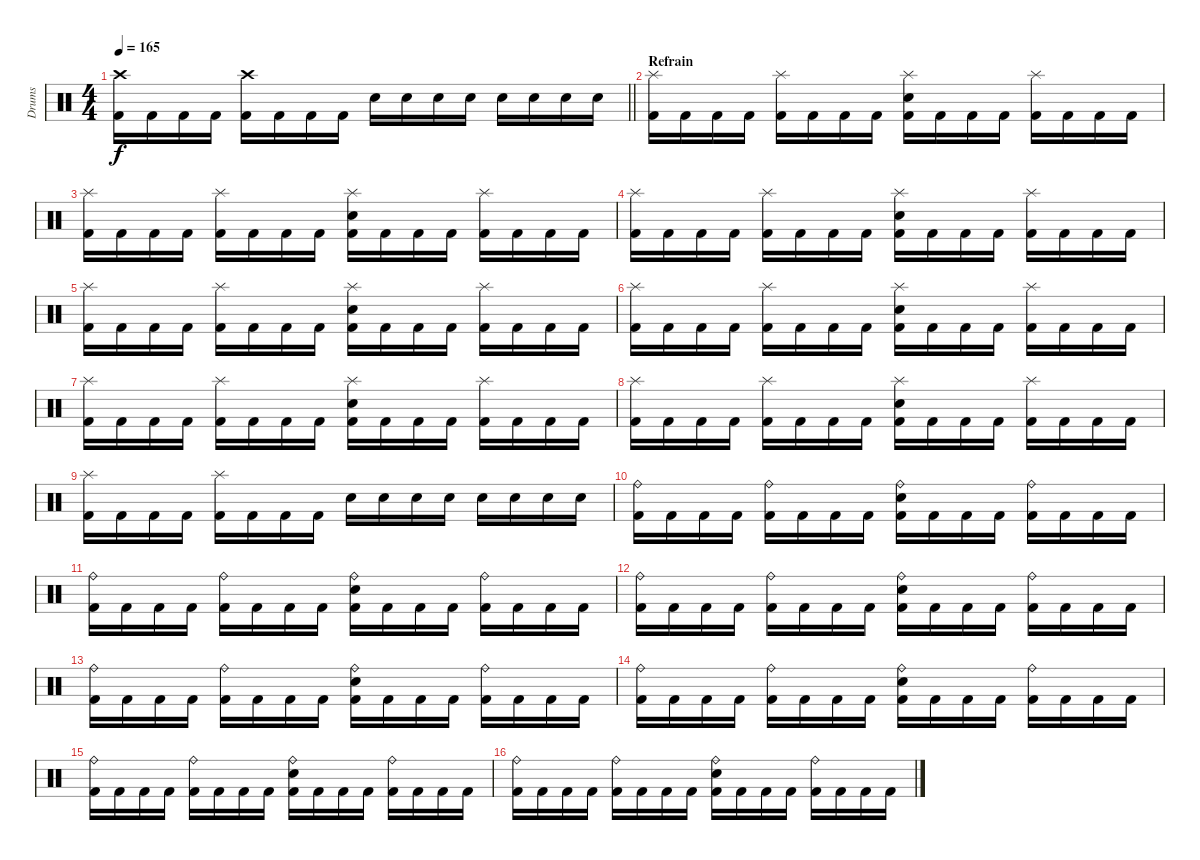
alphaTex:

\track ("Drums" "Drums") {instrument percussion}
\staff {score}
\articulation defaults
\ts (4 4)
\tempo 165
\clef neutral
\barLineRight lightlight
\ks c
("Kick (hit) 2" "Crash high (hit)").16{dy f} "Kick (hit) 2".16 "Kick (hit) 2".16 "Kick (hit) 2".16 ("Kick (hit) 2" "Crash high (hit)").16 "Kick (hit) 2".16 "Kick (hit) 2".16 "Kick (hit) 2".16 "Snare (hit) 2".16 "Snare (hit) 2".16 "Snare (hit) 2".16 "Snare (hit) 2".16 "Snare (hit) 2".16 "Snare (hit) 2".16 "Snare (hit) 2".16 "Snare (hit) 2".16 |
\section ("" "Refrain")
("Kick (hit) 2" "Splash (hit)").16 "Kick (hit) 2".16 "Kick (hit) 2".16 "Kick (hit) 2".16 ("Kick (hit) 2" "Splash (hit)").16 "Kick (hit) 2".16 "Kick (hit) 2".16 "Kick (hit) 2".16 ("Kick (hit) 2" "Snare (hit) 2" "Splash (hit)").16 "Kick (hit) 2".16 "Kick (hit) 2".16 "Kick (hit) 2".16 ("Kick (hit) 2" "Splash (hit)").16 "Kick (hit) 2".16 "Kick (hit) 2".16 "Kick (hit) 2".16 |
("Kick (hit) 2" "Splash (hit)").16 "Kick (hit) 2".16 "Kick (hit) 2".16 "Kick (hit) 2".16 ("Kick (hit) 2" "Splash (hit)").16 "Kick (hit) 2".16 "Kick (hit) 2".16 "Kick (hit) 2".16 ("Kick (hit) 2" "Snare (hit) 2" "Splash (hit)").16 "Kick (hit) 2".16 "Kick (hit) 2".16 "Kick (hit) 2".16 ("Kick (hit) 2" "Splash (hit)").16 "Kick (hit) 2".16 "Kick (hit) 2".16 "Kick (hit) 2".16 |
("Kick (hit) 2" "Splash (hit)").16 "Kick (hit) 2".16 "Kick (hit) 2".16 "Kick (hit) 2".16 ("Kick (hit) 2" "Splash (hit)").16 "Kick (hit) 2".16 "Kick (hit) 2".16 "Kick (hit) 2".16 ("Kick (hit) 2" "Snare (hit) 2" "Splash (hit)").16 "Kick (hit) 2".16 "Kick (hit) 2".16 "Kick (hit) 2".16 ("Kick (hit) 2" "Splash (hit)").16 "Kick (hit) 2".16 "Kick (hit) 2".16 "Kick (hit) 2".16 |
("Kick (hit) 2" "Splash (hit)").16 "Kick (hit) 2".16 "Kick (hit) 2".16 "Kick (hit) 2".16 ("Kick (hit) 2" "Splash (hit)").16 "Kick (hit) 2".16 "Kick (hit) 2".16 "Kick (hit) 2".16 ("Kick (hit) 2" "Snare (hit) 2" "Splash (hit)").16 "Kick (hit) 2".16 "Kick (hit) 2".16 "Kick (hit) 2".16 ("Kick (hit) 2" "Splash (hit)").16 "Kick (hit) 2".16 "Kick (hit) 2".16 "Kick (hit) 2".16 |
("Kick (hit) 2" "Splash (hit)").16 "Kick (hit) 2".16 "Kick (hit) 2".16 "Kick (hit) 2".16 ("Kick (hit) 2" "Splash (hit)").16 "Kick (hit) 2".16 "Kick (hit) 2".16 "Kick (hit) 2".16 ("Kick (hit) 2" "Snare (hit) 2" "Splash (hit)").16 "Kick (hit) 2".16 "Kick (hit) 2".16 "Kick (hit) 2".16 ("Kick (hit) 2" "Splash (hit)").16 "Kick (hit) 2".16 "Kick (hit) 2".16 "Kick (hit) 2".16 |
("Kick (hit) 2" "Splash (hit)").16 "Kick (hit) 2".16 "Kick (hit) 2".16 "Kick (hit) 2".16 ("Kick (hit) 2" "Splash (hit)").16 "Kick (hit) 2".16 "Kick (hit) 2".16 "Kick (hit) 2".16 ("Kick (hit) 2" "Snare (hit) 2" "Splash (hit)").16 "Kick (hit) 2".16 "Kick (hit) 2".16 "Kick (hit) 2".16 ("Kick (hit) 2" "Splash (hit)").16 "Kick (hit) 2".16 "Kick (hit) 2".16 "Kick (hit) 2".16 |
("Kick (hit) 2" "Splash (hit)").16 "Kick (hit) 2".16 "Kick (hit) 2".16 "Kick (hit) 2".16 ("Kick (hit) 2" "Splash (hit)").16 "Kick (hit) 2".16 "Kick (hit) 2".16 "Kick (hit) 2".16 ("Kick (hit) 2" "Snare (hit) 2" "Splash (hit)").16 "Kick (hit) 2".16 "Kick (hit) 2".16 "Kick (hit) 2".16 ("Kick (hit) 2" "Splash (hit)").16 "Kick (hit) 2".16 "Kick (hit) 2".16 "Kick (hit) 2".16 |
("Kick (hit) 2" "Splash (hit)").16 "Kick (hit) 2".16 "Kick (hit) 2".16 "Kick (hit) 2".16 ("Kick (hit) 2" "Splash (hit)").16 "Kick (hit) 2".16 "Kick (hit) 2".16 "Kick (hit) 2".16 "Snare (hit) 2".16 "Snare (hit) 2".16 "Snare (hit) 2".16 "Snare (hit) 2".16 "Snare (hit) 2".16 "Snare (hit) 2".16 "Snare (hit) 2".16 "Snare (hit) 2".16 |
("Kick (hit) 2" "Ride (bell)").16 "Kick (hit) 2".16 "Kick (hit) 2".16 "Kick (hit) 2".16 ("Kick (hit) 2" "Ride (bell)").16 "Kick (hit) 2".16 "Kick (hit) 2".16 "Kick (hit) 2".16 ("Kick (hit) 2" "Snare (hit) 2" "Ride (bell)").16 "Kick (hit) 2".16 "Kick (hit) 2".16 "Kick (hit) 2".16 ("Kick (hit) 2" "Ride (bell)").16 "Kick (hit) 2".16 "Kick (hit) 2".16 "Kick (hit) 2".16 |
("Kick (hit) 2" "Ride (bell)").16 "Kick (hit) 2".16 "Kick (hit) 2".16 "Kick (hit) 2".16 ("Kick (hit) 2" "Ride (bell)").16 "Kick (hit) 2".16 "Kick (hit) 2".16 "Kick (hit) 2".16 ("Kick (hit) 2" "Snare (hit) 2" "Ride (bell)").16 "Kick (hit) 2".16 "Kick (hit) 2".16 "Kick (hit) 2".16 ("Kick (hit) 2" "Ride (bell)").16 "Kick (hit) 2".16 "Kick (hit) 2".16 "Kick (hit) 2".16 |
("Kick (hit) 2" "Ride (bell)").16 "Kick (hit) 2".16 "Kick (hit) 2".16 "Kick (hit) 2".16 ("Kick (hit) 2" "Ride (bell)").16 "Kick (hit) 2".16 "Kick (hit) 2".16 "Kick (hit) 2".16 ("Kick (hit) 2" "Snare (hit) 2" "Ride (bell)").16 "Kick (hit) 2".16 "Kick (hit) 2".16 "Kick (hit) 2".16 ("Kick (hit) 2" "Ride (bell)").16 "Kick (hit) 2".16 "Kick (hit) 2".16 "Kick (hit) 2".16 |
("Kick (hit) 2" "Ride (bell)").16 "Kick (hit) 2".16 "Kick (hit) 2".16 "Kick (hit) 2".16 ("Kick (hit) 2" "Ride (bell)").16 "Kick (hit) 2".16 "Kick (hit) 2".16 "Kick (hit) 2".16 ("Kick (hit) 2" "Snare (hit) 2" "Ride (bell)").16 "Kick (hit) 2".16 "Kick (hit) 2".16 "Kick (hit) 2".16 ("Kick (hit) 2" "Ride (bell)").16 "Kick (hit) 2".16 "Kick (hit) 2".16 "Kick (hit) 2".16 |
("Kick (hit) 2" "Ride (bell)").16 "Kick (hit) 2".16 "Kick (hit) 2".16 "Kick (hit) 2".16 ("Kick (hit) 2" "Ride (bell)").16 "Kick (hit) 2".16 "Kick (hit) 2".16 "Kick (hit) 2".16 ("Kick (hit) 2" "Snare (hit) 2" "Ride (bell)").16 "Kick (hit) 2".16 "Kick (hit) 2".16 "Kick (hit) 2".16 ("Kick (hit) 2" "Ride (bell)").16 "Kick (hit) 2".16 "Kick (hit) 2".16 "Kick (hit) 2".16 |
("Kick (hit) 2" "Ride (bell)").16 "Kick (hit) 2".16 "Kick (hit) 2".16 "Kick (hit) 2".16 ("Kick (hit) 2" "Ride (bell)").16 "Kick (hit) 2".16 "Kick (hit) 2".16 "Kick (hit) 2".16 ("Kick (hit) 2" "Snare (hit) 2" "Ride (bell)").16 "Kick (hit) 2".16 "Kick (hit) 2".16 "Kick (hit) 2".16 ("Kick (hit) 2" "Ride (bell)").16 "Kick (hit) 2".16 "Kick (hit) 2".16 "Kick (hit) 2".16 |
("Kick (hit) 2" "Ride (bell)").16 "Kick (hit) 2".16 "Kick (hit) 2".16 "Kick (hit) 2".16 ("Kick (hit) 2" "Ride (bell)").16 "Kick (hit) 2".16 "Kick (hit) 2".16 "Kick (hit) 2".16 ("Kick (hit) 2" "Snare (hit) 2" "Ride (bell)").16 "Kick (hit) 2".16 "Kick (hit) 2".16 "Kick (hit) 2".16 ("Kick (hit) 2" "Ride (bell)").16 "Kick (hit) 2".16 "Kick (hit) 2".16 "Kick (hit) 2".16
